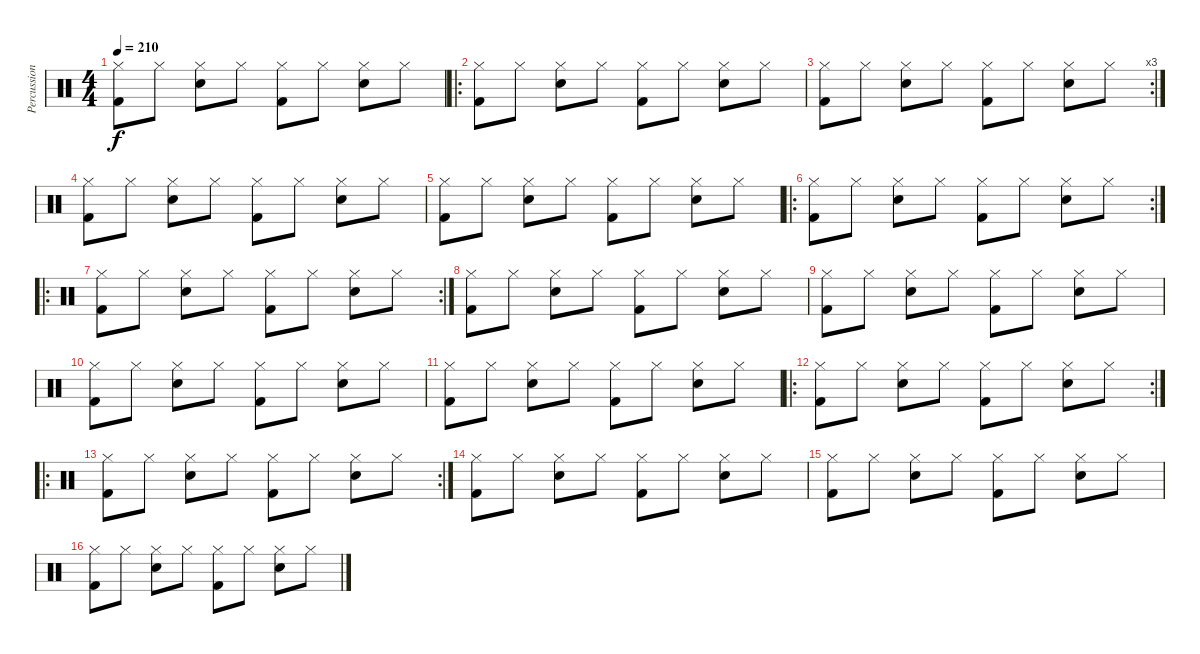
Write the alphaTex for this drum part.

\track ("Percussion" "Percussion") {instrument percussion}
\staff {score}
\articulation defaults
\ts (4 4)
\tempo 210
\clef neutral
\ks c
("Hi-Hat (closed)" "Kick (hit) 2").8{dy f} "Hi-Hat (closed)".8 ("Hi-Hat (closed)" "Snare (hit) 2").8 "Hi-Hat (closed)".8 ("Hi-Hat (closed)" "Kick (hit) 2").8 "Hi-Hat (closed)".8 ("Hi-Hat (closed)" "Snare (hit) 2").8 "Hi-Hat (closed)".8 |
\ro
("Hi-Hat (closed)" "Kick (hit) 2").8 "Hi-Hat (closed)".8 ("Hi-Hat (closed)" "Snare (hit) 2").8 "Hi-Hat (closed)".8 ("Hi-Hat (closed)" "Kick (hit) 2").8 "Hi-Hat (closed)".8 ("Hi-Hat (closed)" "Snare (hit) 2").8 "Hi-Hat (closed)".8 |
\rc 3
("Hi-Hat (closed)" "Kick (hit) 2").8 "Hi-Hat (closed)".8 ("Hi-Hat (closed)" "Snare (hit) 2").8 "Hi-Hat (closed)".8 ("Hi-Hat (closed)" "Kick (hit) 2").8 "Hi-Hat (closed)".8 ("Hi-Hat (closed)" "Snare (hit) 2").8 "Hi-Hat (closed)".8 |
("Hi-Hat (closed)" "Kick (hit) 2").8 "Hi-Hat (closed)".8 ("Hi-Hat (closed)" "Snare (hit) 2").8 "Hi-Hat (closed)".8 ("Hi-Hat (closed)" "Kick (hit) 2").8 "Hi-Hat (closed)".8 ("Hi-Hat (closed)" "Snare (hit) 2").8 "Hi-Hat (closed)".8 |
("Hi-Hat (closed)" "Kick (hit) 2").8 "Hi-Hat (closed)".8 ("Hi-Hat (closed)" "Snare (hit) 2").8 "Hi-Hat (closed)".8 ("Hi-Hat (closed)" "Kick (hit) 2").8 "Hi-Hat (closed)".8 ("Hi-Hat (closed)" "Snare (hit) 2").8 "Hi-Hat (closed)".8 |
\ro
\rc 2
("Hi-Hat (closed)" "Kick (hit) 2").8 "Hi-Hat (closed)".8 ("Hi-Hat (closed)" "Snare (hit) 2").8 "Hi-Hat (closed)".8 ("Hi-Hat (closed)" "Kick (hit) 2").8 "Hi-Hat (closed)".8 ("Hi-Hat (closed)" "Snare (hit) 2").8 "Hi-Hat (closed)".8 |
\ro
\rc 2
("Hi-Hat (closed)" "Kick (hit) 2").8 "Hi-Hat (closed)".8 ("Hi-Hat (closed)" "Snare (hit) 2").8 "Hi-Hat (closed)".8 ("Hi-Hat (closed)" "Kick (hit) 2").8 "Hi-Hat (closed)".8 ("Hi-Hat (closed)" "Snare (hit) 2").8 "Hi-Hat (closed)".8 |
("Hi-Hat (closed)" "Kick (hit) 2").8 "Hi-Hat (closed)".8 ("Hi-Hat (closed)" "Snare (hit) 2").8 "Hi-Hat (closed)".8 ("Hi-Hat (closed)" "Kick (hit) 2").8 "Hi-Hat (closed)".8 ("Hi-Hat (closed)" "Snare (hit) 2").8 "Hi-Hat (closed)".8 |
("Hi-Hat (closed)" "Kick (hit) 2").8 "Hi-Hat (closed)".8 ("Hi-Hat (closed)" "Snare (hit) 2").8 "Hi-Hat (closed)".8 ("Hi-Hat (closed)" "Kick (hit) 2").8 "Hi-Hat (closed)".8 ("Hi-Hat (closed)" "Snare (hit) 2").8 "Hi-Hat (closed)".8 |
("Hi-Hat (closed)" "Kick (hit) 2").8 "Hi-Hat (closed)".8 ("Hi-Hat (closed)" "Snare (hit) 2").8 "Hi-Hat (closed)".8 ("Hi-Hat (closed)" "Kick (hit) 2").8 "Hi-Hat (closed)".8 ("Hi-Hat (closed)" "Snare (hit) 2").8 "Hi-Hat (closed)".8 |
("Hi-Hat (closed)" "Kick (hit) 2").8 "Hi-Hat (closed)".8 ("Hi-Hat (closed)" "Snare (hit) 2").8 "Hi-Hat (closed)".8 ("Hi-Hat (closed)" "Kick (hit) 2").8 "Hi-Hat (closed)".8 ("Hi-Hat (closed)" "Snare (hit) 2").8 "Hi-Hat (closed)".8 |
\ro
\rc 2
("Hi-Hat (closed)" "Kick (hit) 2").8 "Hi-Hat (closed)".8 ("Hi-Hat (closed)" "Snare (hit) 2").8 "Hi-Hat (closed)".8 ("Hi-Hat (closed)" "Kick (hit) 2").8 "Hi-Hat (closed)".8 ("Hi-Hat (closed)" "Snare (hit) 2").8 "Hi-Hat (closed)".8 |
\ro
\rc 2
("Hi-Hat (closed)" "Kick (hit) 2").8 "Hi-Hat (closed)".8 ("Hi-Hat (closed)" "Snare (hit) 2").8 "Hi-Hat (closed)".8 ("Hi-Hat (closed)" "Kick (hit) 2").8 "Hi-Hat (closed)".8 ("Hi-Hat (closed)" "Snare (hit) 2").8 "Hi-Hat (closed)".8 |
("Hi-Hat (closed)" "Kick (hit) 2").8 "Hi-Hat (closed)".8 ("Hi-Hat (closed)" "Snare (hit) 2").8 "Hi-Hat (closed)".8 ("Hi-Hat (closed)" "Kick (hit) 2").8 "Hi-Hat (closed)".8 ("Hi-Hat (closed)" "Snare (hit) 2").8 "Hi-Hat (closed)".8 |
("Hi-Hat (closed)" "Kick (hit) 2").8 "Hi-Hat (closed)".8 ("Hi-Hat (closed)" "Snare (hit) 2").8 "Hi-Hat (closed)".8 ("Hi-Hat (closed)" "Kick (hit) 2").8 "Hi-Hat (closed)".8 ("Hi-Hat (closed)" "Snare (hit) 2").8 "Hi-Hat (closed)".8 |
("Hi-Hat (closed)" "Kick (hit) 2").8 "Hi-Hat (closed)".8 ("Hi-Hat (closed)" "Snare (hit) 2").8 "Hi-Hat (closed)".8 ("Hi-Hat (closed)" "Kick (hit) 2").8 "Hi-Hat (closed)".8 ("Hi-Hat (closed)" "Snare (hit) 2").8 "Hi-Hat (closed)".8
